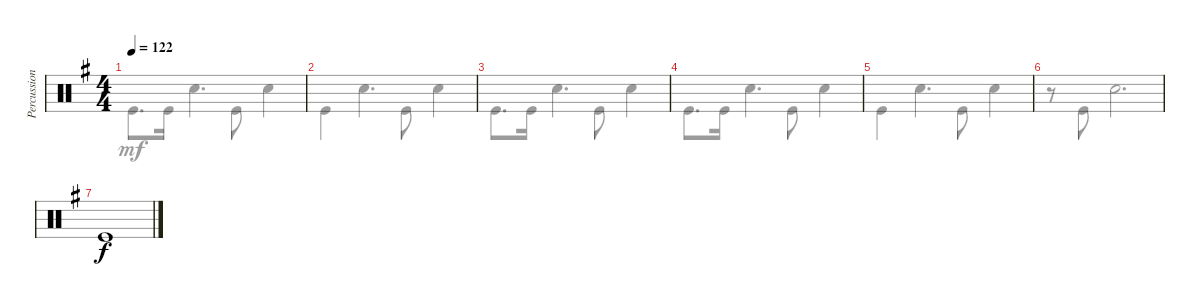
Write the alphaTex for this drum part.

\track ("Percussion" "Percussion") {instrument percussion}
\staff {score}
\articulation defaults
\voice
\ts (4 4)
\tempo 122
\clef neutral
\ks eminor
|
|
|
|
|
|
"Kick (hit)".1
\voice
\clef neutral
\ottava regular
\simile none
\ks eminor "Kick (hit)".8{d dy mf} "Kick (hit)".16 "Snare (hit) 2".4{d} "Kick (hit)".8 "Snare (hit) 2".4
|
"Kick (hit)".4 "Snare (hit) 2".4{d} "Kick (hit)".8 "Snare (hit) 2".4 |
"Kick (hit)".8{d} "Kick (hit)".16 "Snare (hit) 2".4{d} "Kick (hit)".8 "Snare (hit) 2".4 |
"Kick (hit)".8{d} "Kick (hit)".16 "Snare (hit) 2".4{d} "Kick (hit)".8 "Snare (hit) 2".4 |
"Kick (hit)".4 "Snare (hit) 2".4{d} "Kick (hit)".8 "Snare (hit) 2".4 |
r.8 "Kick (hit)".8 "Snare (hit) 2".2{d} |
